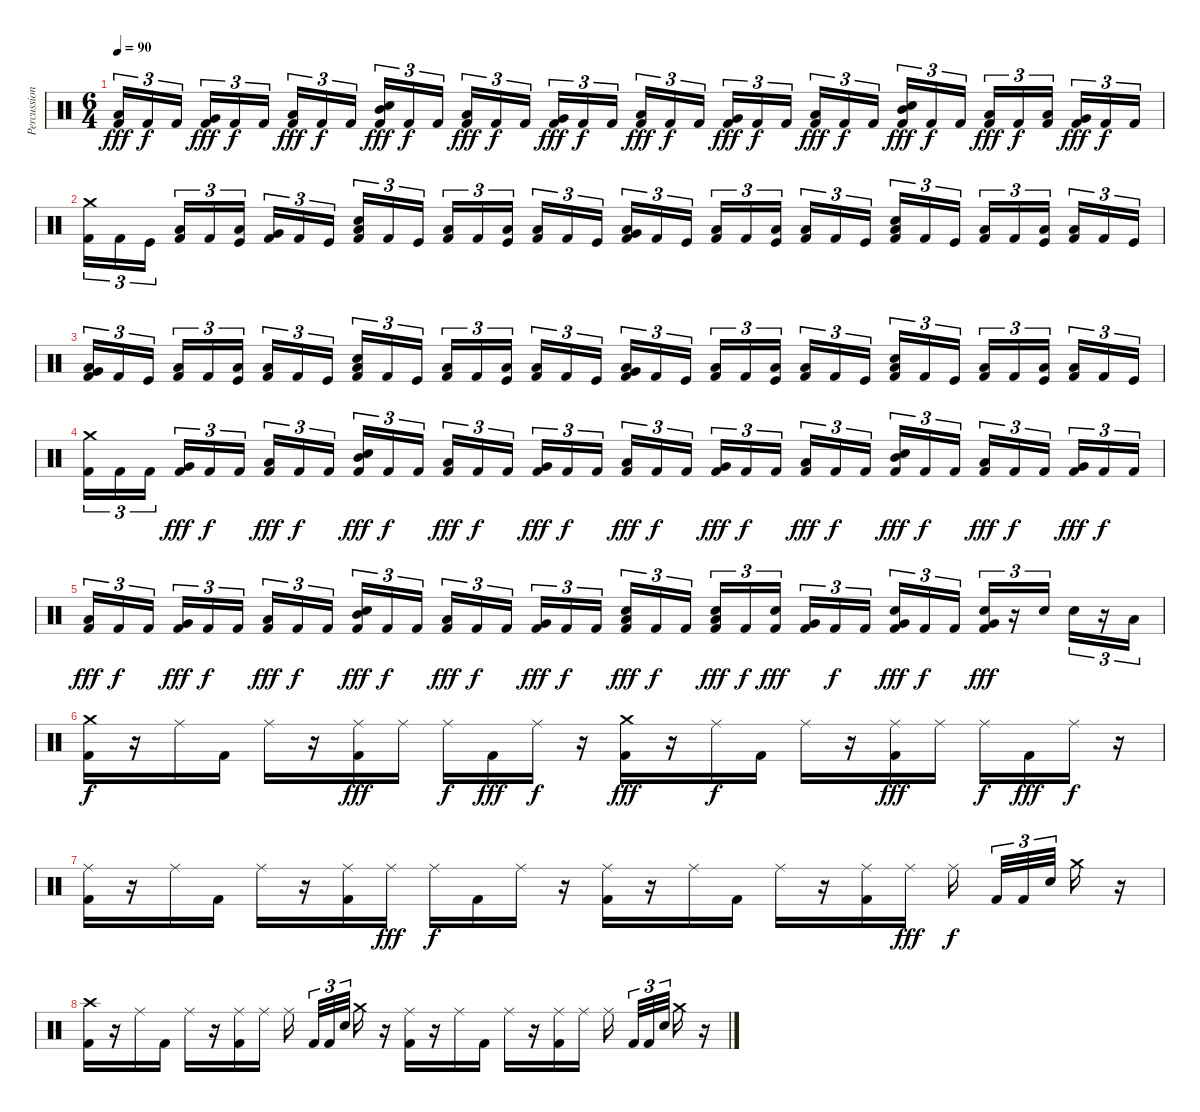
\track ("Percussion" "Percussion") {instrument percussion}
\staff {score}
\articulation defaults
\ts (6 4)
\tempo 90
\clef neutral
\ks c
("Low Floor Tom (hit)" "Kick (hit) 2").16{tu (3 2) dy fff} "Kick (hit) 2".16{tu (3 2) dy f} "Kick (hit) 2".16{tu (3 2) beam splitsecondary} ("Very Low Tom (hit)" "Kick (hit) 2").16{tu (3 2) dy fff} "Kick (hit) 2".16{tu (3 2) dy f} "Kick (hit) 2".16{tu (3 2) beam splitsecondary} ("Low Tom (hit)" "Kick (hit) 2").16{tu (3 2) dy fff} "Kick (hit) 2".16{tu (3 2) dy f} "Kick (hit) 2".16{tu (3 2) beam splitsecondary} ("Mid Tom (hit)" "Electric Snare (hit)" "Kick (hit) 2").16{tu (3 2) dy fff} "Kick (hit) 2".16{tu (3 2) dy f} "Kick (hit) 2".16{tu (3 2) beam splitsecondary} ("Low Tom (hit)" "Kick (hit) 2").16{tu (3 2) dy fff} "Kick (hit) 2".16{tu (3 2) dy f} "Kick (hit) 2".16{tu (3 2) beam splitsecondary} ("Very Low Tom (hit)" "Kick (hit) 2").16{tu (3 2) dy fff} "Kick (hit) 2".16{tu (3 2) dy f} "Kick (hit) 2".16{tu (3 2)} ("Low Floor Tom (hit)" "Kick (hit) 2").16{tu (3 2) dy fff} "Kick (hit) 2".16{tu (3 2) dy f} "Kick (hit) 2".16{tu (3 2) beam splitsecondary} ("Very Low Tom (hit)" "Kick (hit) 2").16{tu (3 2) dy fff} "Kick (hit) 2".16{tu (3 2) dy f} "Kick (hit) 2".16{tu (3 2) beam splitsecondary} ("Low Tom (hit)" "Kick (hit) 2").16{tu (3 2) dy fff} "Kick (hit) 2".16{tu (3 2) dy f} "Kick (hit) 2".16{tu (3 2) beam splitsecondary} ("Mid Tom (hit)" "Electric Snare (hit)" "Kick (hit) 2").16{tu (3 2) dy fff} "Kick (hit) 2".16{tu (3 2) dy f} "Kick (hit) 2".16{tu (3 2) beam splitsecondary} ("Low Tom (hit)" "Kick (hit) 2").16{tu (3 2) dy fff} "Kick (hit) 2".16{tu (3 2) dy f} ("Low Tom (hit)" "Kick (hit) 2").16{tu (3 2) beam splitsecondary} ("Very Low Tom (hit)" "Kick (hit) 2").16{tu (3 2) dy fff} "Kick (hit) 2".16{tu (3 2) dy f} "Kick (hit) 2".16{tu (3 2)} |
("Crash medium (hit)" "Kick (hit) 2").16{tu (3 2)} "Kick (hit) 2".16{tu (3 2)} "Kick (hit)".16{tu (3 2) beam splitsecondary} ("Low Floor Tom (hit)" "Kick (hit) 2").16{tu (3 2)} "Kick (hit) 2".16{tu (3 2)} ("Low Floor Tom (hit)" "Kick (hit)").16{tu (3 2) beam splitsecondary} ("Very Low Tom (hit)" "Kick (hit) 2").16{tu (3 2)} "Kick (hit) 2".16{tu (3 2)} "Kick (hit)".16{tu (3 2) beam splitsecondary} ("Low Floor Tom (hit)" "Electric Snare (hit)" "Kick (hit) 2").16{tu (3 2)} "Kick (hit) 2".16{tu (3 2)} "Kick (hit)".16{tu (3 2) beam splitsecondary} ("Low Floor Tom (hit)" "Kick (hit) 2").16{tu (3 2)} "Kick (hit) 2".16{tu (3 2)} ("Low Floor Tom (hit)" "Kick (hit)").16{tu (3 2) beam splitsecondary} ("Low Tom (hit)" "Kick (hit) 2").16{tu (3 2)} "Kick (hit) 2".16{tu (3 2)} "Kick (hit)".16{tu (3 2)} ("Low Floor Tom (hit)" "Very Low Tom (hit)" "Kick (hit) 2").16{tu (3 2)} "Kick (hit) 2".16{tu (3 2)} "Kick (hit)".16{tu (3 2) beam splitsecondary} ("Low Floor Tom (hit)" "Kick (hit) 2").16{tu (3 2)} "Kick (hit) 2".16{tu (3 2)} ("Low Tom (hit)" "Kick (hit)").16{tu (3 2) beam splitsecondary} ("Low Floor Tom (hit)" "Kick (hit) 2").16{tu (3 2)} "Kick (hit) 2".16{tu (3 2)} "Kick (hit)".16{tu (3 2) beam splitsecondary} ("Low Floor Tom (hit)" "Electric Snare (hit)" "Kick (hit) 2").16{tu (3 2)} "Kick (hit) 2".16{tu (3 2)} "Kick (hit)".16{tu (3 2) beam splitsecondary} ("Low Floor Tom (hit)" "Kick (hit) 2").16{tu (3 2)} "Kick (hit) 2".16{tu (3 2)} ("Low Tom (hit)" "Kick (hit)").16{tu (3 2) beam splitsecondary} ("Low Floor Tom (hit)" "Kick (hit) 2").16{tu (3 2)} "Kick (hit) 2".16{tu (3 2)} "Kick (hit)".16{tu (3 2)} |
("Low Floor Tom (hit)" "Very Low Tom (hit)" "Kick (hit) 2").16{tu (3 2)} "Kick (hit) 2".16{tu (3 2)} "Kick (hit)".16{tu (3 2) beam splitsecondary} ("Low Floor Tom (hit)" "Kick (hit) 2").16{tu (3 2)} "Kick (hit) 2".16{tu (3 2)} ("Low Tom (hit)" "Kick (hit)").16{tu (3 2) beam splitsecondary} ("Low Floor Tom (hit)" "Kick (hit) 2").16{tu (3 2)} "Kick (hit) 2".16{tu (3 2)} "Kick (hit)".16{tu (3 2) beam splitsecondary} ("Low Floor Tom (hit)" "Electric Snare (hit)" "Kick (hit) 2").16{tu (3 2)} "Kick (hit) 2".16{tu (3 2)} "Kick (hit)".16{tu (3 2) beam splitsecondary} ("Low Floor Tom (hit)" "Kick (hit) 2").16{tu (3 2)} "Kick (hit) 2".16{tu (3 2)} ("Low Tom (hit)" "Kick (hit)").16{tu (3 2) beam splitsecondary} ("Low Floor Tom (hit)" "Kick (hit) 2").16{tu (3 2)} "Kick (hit) 2".16{tu (3 2)} "Kick (hit)".16{tu (3 2)} ("Low Floor Tom (hit)" "Very Low Tom (hit)" "Kick (hit) 2").16{tu (3 2)} "Kick (hit) 2".16{tu (3 2)} "Kick (hit)".16{tu (3 2) beam splitsecondary} ("Low Floor Tom (hit)" "Kick (hit) 2").16{tu (3 2)} "Kick (hit) 2".16{tu (3 2)} ("Low Tom (hit)" "Kick (hit)").16{tu (3 2) beam splitsecondary} ("Low Floor Tom (hit)" "Kick (hit) 2").16{tu (3 2)} "Kick (hit) 2".16{tu (3 2)} "Kick (hit)".16{tu (3 2) beam splitsecondary} ("Low Floor Tom (hit)" "Electric Snare (hit)" "Kick (hit) 2").16{tu (3 2)} "Kick (hit) 2".16{tu (3 2)} "Kick (hit)".16{tu (3 2) beam splitsecondary} ("Low Floor Tom (hit)" "Kick (hit) 2").16{tu (3 2)} "Kick (hit) 2".16{tu (3 2)} ("Low Tom (hit)" "Kick (hit)").16{tu (3 2) beam splitsecondary} ("Low Floor Tom (hit)" "Kick (hit) 2").16{tu (3 2)} "Kick (hit) 2".16{tu (3 2)} "Kick (hit)".16{tu (3 2)} |
("Crash medium (hit)" "Kick (hit) 2").16{tu (3 2)} "Kick (hit) 2".16{tu (3 2)} "Kick (hit) 2".16{tu (3 2) beam splitsecondary} ("Very Low Tom (hit)" "Kick (hit) 2").16{tu (3 2) dy fff} "Kick (hit) 2".16{tu (3 2) dy f} "Kick (hit) 2".16{tu (3 2) beam splitsecondary} ("Low Tom (hit)" "Kick (hit) 2").16{tu (3 2) dy fff} "Kick (hit) 2".16{tu (3 2) dy f} "Kick (hit) 2".16{tu (3 2) beam splitsecondary} ("Mid Tom (hit)" "Electric Snare (hit)" "Kick (hit) 2").16{tu (3 2) dy fff} "Kick (hit) 2".16{tu (3 2) dy f} "Kick (hit) 2".16{tu (3 2) beam splitsecondary} ("Low Tom (hit)" "Kick (hit) 2").16{tu (3 2) dy fff} "Kick (hit) 2".16{tu (3 2) dy f} "Kick (hit) 2".16{tu (3 2) beam splitsecondary} ("Very Low Tom (hit)" "Kick (hit) 2").16{tu (3 2) dy fff} "Kick (hit) 2".16{tu (3 2) dy f} "Kick (hit) 2".16{tu (3 2)} ("Low Floor Tom (hit)" "Kick (hit) 2").16{tu (3 2) dy fff} "Kick (hit) 2".16{tu (3 2) dy f} "Kick (hit) 2".16{tu (3 2) beam splitsecondary} ("Very Low Tom (hit)" "Kick (hit) 2").16{tu (3 2) dy fff} "Kick (hit) 2".16{tu (3 2) dy f} "Kick (hit) 2".16{tu (3 2) beam splitsecondary} ("Low Tom (hit)" "Kick (hit) 2").16{tu (3 2) dy fff} "Kick (hit) 2".16{tu (3 2) dy f} "Kick (hit) 2".16{tu (3 2) beam splitsecondary} ("Mid Tom (hit)" "Electric Snare (hit)" "Kick (hit) 2").16{tu (3 2) dy fff} "Kick (hit) 2".16{tu (3 2) dy f} "Kick (hit) 2".16{tu (3 2) beam splitsecondary} ("Low Tom (hit)" "Kick (hit) 2").16{tu (3 2) dy fff} "Kick (hit) 2".16{tu (3 2) dy f} "Kick (hit) 2".16{tu (3 2) beam splitsecondary} ("Very Low Tom (hit)" "Kick (hit) 2").16{tu (3 2) dy fff} "Kick (hit) 2".16{tu (3 2) dy f} "Kick (hit) 2".16{tu (3 2)} |
("Low Floor Tom (hit)" "Kick (hit) 2").16{tu (3 2) dy fff} "Kick (hit) 2".16{tu (3 2) dy f} "Kick (hit) 2".16{tu (3 2) beam splitsecondary} ("Very Low Tom (hit)" "Kick (hit) 2").16{tu (3 2) dy fff} "Kick (hit) 2".16{tu (3 2) dy f} "Kick (hit) 2".16{tu (3 2) beam splitsecondary} ("Low Tom (hit)" "Kick (hit) 2").16{tu (3 2) dy fff} "Kick (hit) 2".16{tu (3 2) dy f} "Kick (hit) 2".16{tu (3 2) beam splitsecondary} ("Mid Tom (hit)" "Electric Snare (hit)" "Kick (hit) 2").16{tu (3 2) dy fff} "Kick (hit) 2".16{tu (3 2) dy f} "Kick (hit) 2".16{tu (3 2) beam splitsecondary} ("Low Tom (hit)" "Kick (hit) 2").16{tu (3 2) dy fff} "Kick (hit) 2".16{tu (3 2) dy f} "Kick (hit) 2".16{tu (3 2) beam splitsecondary} ("Very Low Tom (hit)" "Kick (hit) 2").16{tu (3 2) dy fff} "Kick (hit) 2".16{tu (3 2) dy f} "Kick (hit) 2".16{tu (3 2)} ("Low Floor Tom (hit)" "Electric Snare (hit)" "Kick (hit) 2").16{tu (3 2) dy fff} "Kick (hit) 2".16{tu (3 2) dy f} "Kick (hit) 2".16{tu (3 2) beam splitsecondary} ("Low Floor Tom (hit)" "Electric Snare (hit)" "Kick (hit) 2").16{tu (3 2) dy fff} "Kick (hit) 2".16{tu (3 2) dy f} ("Electric Snare (hit)" "Kick (hit) 2").16{tu (3 2) dy fff beam splitsecondary} ("Very Low Tom (hit)" "Kick (hit) 2").16{tu (3 2)} "Kick (hit) 2".16{tu (3 2) dy f} "Kick (hit) 2".16{tu (3 2) beam splitsecondary} ("Very Low Tom (hit)" "Electric Snare (hit)" "Kick (hit) 2").16{tu (3 2) dy fff} "Kick (hit) 2".16{tu (3 2) dy f} "Kick (hit) 2".16{tu (3 2) beam splitsecondary} ("Very Low Tom (hit)" "Electric Snare (hit)" "Kick (hit) 2").16{tu (3 2) dy fff} r.16{tu (3 2)} "Electric Snare (hit)".16{tu (3 2)} "Electric Snare (hit)".16{tu (3 2)} r.16{tu (3 2)} "Low Tom (hit)".16{tu (3 2)} |
("Crash medium (hit)" "Kick (hit) 2").16{dy f} r.16 "Ride (middle)".16 "Kick (hit) 2".16 "Ride (middle)".16 r.16 ("Ride (middle)" "Kick (hit) 2").16{dy fff} "Ride (middle)".16 "Ride (middle)".16{dy f} "Kick (hit) 2".16{dy fff} "Ride (middle)".16{dy f} r.16 ("Crash medium (hit)" "Kick (hit) 2").16{dy fff} r.16 "Ride (middle)".16{dy f} "Kick (hit) 2".16 "Ride (middle)".16 r.16 ("Ride (middle)" "Kick (hit) 2").16{dy fff} "Ride (middle)".16 "Ride (middle)".16{dy f} "Kick (hit) 2".16{dy fff} "Ride (middle)".16{dy f} r.16 |
("Ride (middle)" "Kick (hit) 2").16 r.16 "Ride (middle)".16 "Kick (hit) 2".16 "Ride (middle)".16 r.16 ("Ride (middle)" "Kick (hit) 2").16 "Ride (middle)".16{dy fff} "Ride (middle)".16{dy f} "Kick (hit) 2".16 "Ride (middle)".16 r.16 ("Ride (middle)" "Kick (hit) 2").16 r.16 "Ride (middle)".16 "Kick (hit) 2".16 "Ride (middle)".16 r.16 ("Ride (middle)" "Kick (hit) 2").16 "Ride (middle)".16{dy fff} "Ride (middle)".16{dy f beam splitsecondary} "Kick (hit) 2".32{tu (3 2)} "Kick (hit) 2".32{tu (3 2)} "Electric Snare (hit)".32{tu (3 2) beam splitsecondary} "Crash medium (hit)".16 r.16 |
("Crash high (hit)" "Kick (hit) 2").16 r.16 "Ride (middle)".16 "Kick (hit) 2".16 "Ride (middle)".16 r.16 ("Ride (middle)" "Kick (hit) 2").16 "Ride (middle)".16 "Ride (middle)".16{beam splitsecondary} "Kick (hit) 2".32{tu (3 2)} "Kick (hit) 2".32{tu (3 2)} "Electric Snare (hit)".32{tu (3 2) beam splitsecondary} "Crash medium (hit)".16 r.16 ("Ride (middle)" "Kick (hit) 2").16 r.16 "Ride (middle)".16 "Kick (hit) 2".16 "Ride (middle)".16 r.16 ("Ride (middle)" "Kick (hit) 2").16 "Ride (middle)".16 "Ride (middle)".16{beam splitsecondary} "Kick (hit) 2".32{tu (3 2)} "Kick (hit) 2".32{tu (3 2)} "Electric Snare (hit)".32{tu (3 2) beam splitsecondary} "Crash medium (hit)".16 r.16
